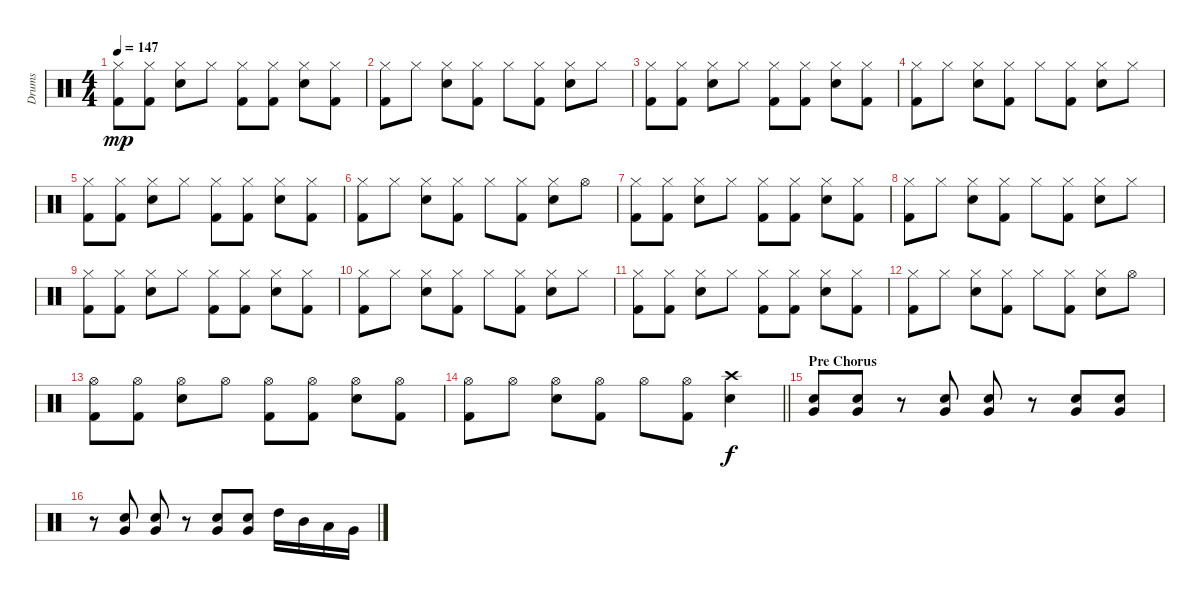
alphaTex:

\track ("Drums" "Drums") {instrument percussion}
\staff {score}
\articulation defaults
\ts (4 4)
\tempo 147
\clef neutral
\ks c
("Hi-Hat (closed)" "Kick (hit) 2").8{dy mp} ("Hi-Hat (closed)" "Kick (hit) 2").8 ("Hi-Hat (closed)" "Snare (hit) 2").8 "Hi-Hat (closed)".8 ("Hi-Hat (closed)" "Kick (hit) 2").8 ("Hi-Hat (closed)" "Kick (hit) 2").8 ("Hi-Hat (closed)" "Snare (hit) 2").8 ("Hi-Hat (closed)" "Kick (hit) 2").8 |
("Hi-Hat (closed)" "Kick (hit) 2").8 "Hi-Hat (closed)".8 ("Hi-Hat (closed)" "Snare (hit) 2").8 ("Hi-Hat (closed)" "Kick (hit) 2").8 "Hi-Hat (closed)".8 ("Hi-Hat (closed)" "Kick (hit) 2").8 ("Hi-Hat (closed)" "Snare (hit) 2").8 "Hi-Hat (closed)".8 |
("Hi-Hat (closed)" "Kick (hit) 2").8 ("Hi-Hat (closed)" "Kick (hit) 2").8 ("Hi-Hat (closed)" "Snare (hit) 2").8 "Hi-Hat (closed)".8 ("Hi-Hat (closed)" "Kick (hit) 2").8 ("Hi-Hat (closed)" "Kick (hit) 2").8 ("Hi-Hat (closed)" "Snare (hit) 2").8 ("Hi-Hat (closed)" "Kick (hit) 2").8 |
("Hi-Hat (closed)" "Kick (hit) 2").8 "Hi-Hat (closed)".8 ("Hi-Hat (closed)" "Snare (hit) 2").8 ("Hi-Hat (closed)" "Kick (hit) 2").8 "Hi-Hat (closed)".8 ("Hi-Hat (closed)" "Kick (hit) 2").8 ("Hi-Hat (closed)" "Snare (hit) 2").8 "Hi-Hat (closed)".8 |
("Hi-Hat (closed)" "Kick (hit) 2").8 ("Hi-Hat (closed)" "Kick (hit) 2").8 ("Hi-Hat (closed)" "Snare (hit) 2").8 "Hi-Hat (closed)".8 ("Hi-Hat (closed)" "Kick (hit) 2").8 ("Hi-Hat (closed)" "Kick (hit) 2").8 ("Hi-Hat (closed)" "Snare (hit) 2").8 ("Hi-Hat (closed)" "Kick (hit) 2").8 |
("Hi-Hat (closed)" "Kick (hit) 2").8 "Hi-Hat (closed)".8 ("Hi-Hat (closed)" "Snare (hit) 2").8 ("Hi-Hat (closed)" "Kick (hit) 2").8 "Hi-Hat (closed)".8 ("Hi-Hat (closed)" "Kick (hit) 2").8 ("Hi-Hat (closed)" "Snare (hit) 2").8 "Hi-Hat (open)".8 |
("Hi-Hat (closed)" "Kick (hit) 2").8 ("Hi-Hat (closed)" "Kick (hit) 2").8 ("Hi-Hat (closed)" "Snare (hit) 2").8 "Hi-Hat (closed)".8 ("Hi-Hat (closed)" "Kick (hit) 2").8 ("Hi-Hat (closed)" "Kick (hit) 2").8 ("Hi-Hat (closed)" "Snare (hit) 2").8 ("Hi-Hat (closed)" "Kick (hit) 2").8 |
("Hi-Hat (closed)" "Kick (hit) 2").8 "Hi-Hat (closed)".8 ("Hi-Hat (closed)" "Snare (hit) 2").8 ("Hi-Hat (closed)" "Kick (hit) 2").8 "Hi-Hat (closed)".8 ("Hi-Hat (closed)" "Kick (hit) 2").8 ("Hi-Hat (closed)" "Snare (hit) 2").8 "Hi-Hat (closed)".8 |
("Hi-Hat (closed)" "Kick (hit) 2").8 ("Hi-Hat (closed)" "Kick (hit) 2").8 ("Hi-Hat (closed)" "Snare (hit) 2").8 "Hi-Hat (closed)".8 ("Hi-Hat (closed)" "Kick (hit) 2").8 ("Hi-Hat (closed)" "Kick (hit) 2").8 ("Hi-Hat (closed)" "Snare (hit) 2").8 ("Hi-Hat (closed)" "Kick (hit) 2").8 |
("Hi-Hat (closed)" "Kick (hit) 2").8 "Hi-Hat (closed)".8 ("Hi-Hat (closed)" "Snare (hit) 2").8 ("Hi-Hat (closed)" "Kick (hit) 2").8 "Hi-Hat (closed)".8 ("Hi-Hat (closed)" "Kick (hit) 2").8 ("Hi-Hat (closed)" "Snare (hit) 2").8 "Hi-Hat (closed)".8 |
("Hi-Hat (closed)" "Kick (hit) 2").8 ("Hi-Hat (closed)" "Kick (hit) 2").8 ("Hi-Hat (closed)" "Snare (hit) 2").8 "Hi-Hat (closed)".8 ("Hi-Hat (closed)" "Kick (hit) 2").8 ("Hi-Hat (closed)" "Kick (hit) 2").8 ("Hi-Hat (closed)" "Snare (hit) 2").8 ("Hi-Hat (closed)" "Kick (hit) 2").8 |
("Hi-Hat (closed)" "Kick (hit) 2").8 "Hi-Hat (closed)".8 ("Hi-Hat (closed)" "Snare (hit) 2").8 ("Hi-Hat (closed)" "Kick (hit) 2").8 "Hi-Hat (closed)".8 ("Hi-Hat (closed)" "Kick (hit) 2").8 ("Hi-Hat (closed)" "Snare (hit) 2").8 "Hi-Hat (open)".8 |
("Hi-Hat (open)" "Kick (hit) 2").8 ("Hi-Hat (open)" "Kick (hit) 2").8 ("Hi-Hat (open)" "Snare (hit) 2").8 "Hi-Hat (open)".8 ("Hi-Hat (open)" "Kick (hit) 2").8 ("Hi-Hat (open)" "Kick (hit) 2").8 ("Hi-Hat (open)" "Snare (hit) 2").8 ("Hi-Hat (open)" "Kick (hit) 2").8 |
\barLineRight lightlight
("Hi-Hat (open)" "Kick (hit) 2").8 "Hi-Hat (open)".8 ("Hi-Hat (open)" "Snare (hit) 2").8 ("Hi-Hat (open)" "Kick (hit) 2").8 "Hi-Hat (open)".8 ("Hi-Hat (open)" "Kick (hit) 2").8 ("Crash high (hit)" "Snare (hit) 2").4{dy f} |
\section ("" "Pre Chorus")
("Very Low Tom (hit)" "Snare (hit) 2").8 ("Very Low Tom (hit)" "Snare (hit) 2").8 r.8 ("Very Low Tom (hit)" "Snare (hit) 2").8 ("Very Low Tom (hit)" "Snare (hit) 2").8 r.8 ("Very Low Tom (hit)" "Snare (hit) 2").8 ("Very Low Tom (hit)" "Snare (hit) 2").8 |
r.8 ("Very Low Tom (hit)" "Snare (hit) 2").8 ("Very Low Tom (hit)" "Snare (hit) 2").8 r.8 ("Very Low Tom (hit)" "Snare (hit) 2").8 ("Very Low Tom (hit)" "Snare (hit) 2").8 "High Tom (hit)".16 "Mid Tom (hit)".16 "Low Tom (hit)".16 "Very Low Tom (hit)".16
